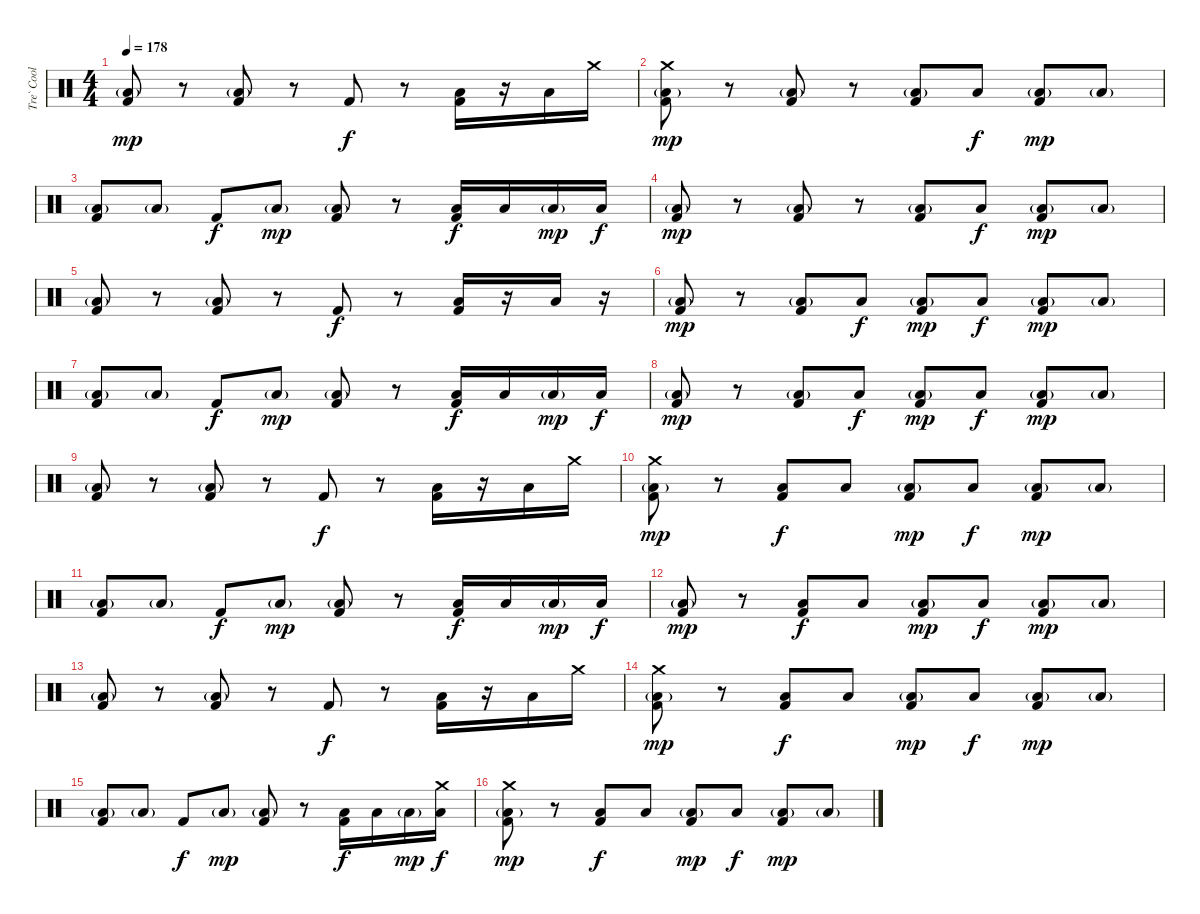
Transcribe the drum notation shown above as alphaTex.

\track ("Tre` Cool (Drums)" "Tre` Cool ") {instrument percussion}
\staff {score}
\articulation defaults
\ts (4 4)
\tempo 178
\clef neutral
\ks c
("Low Tom (hit)"{g} "Kick (hit) 2").8{dy mp} r.8 ("Low Tom (hit)"{g} "Kick (hit) 2").8 r.8 "Kick (hit) 2".8{dy f} r.8 ("Low Floor Tom (hit)" "Kick (hit) 2").16 r.16 "Low Tom (hit)".16 "Crash medium (hit)".16 |
("Crash medium (hit)" "Low Tom (hit)"{g} "Kick (hit) 2").8{dy mp} r.8 ("Low Tom (hit)"{g} "Kick (hit) 2").8 r.8 ("Low Tom (hit)"{g} "Kick (hit) 2").8 "Low Tom (hit)".8{dy f} ("Low Tom (hit)"{g} "Kick (hit) 2").8{dy mp} "Low Tom (hit)"{g}.8 |
("Low Tom (hit)"{g} "Kick (hit) 2").8 "Low Tom (hit)"{g}.8 "Kick (hit) 2".8{dy f} "Low Tom (hit)"{g}.8{dy mp} ("Low Tom (hit)"{g} "Kick (hit) 2").8 r.8 ("Low Floor Tom (hit)" "Kick (hit) 2").16{dy f} "Low Floor Tom (hit)".16 "Low Tom (hit)"{g}.16{dy mp} "Low Floor Tom (hit)".16{dy f} |
("Low Tom (hit)"{g} "Kick (hit) 2").8{dy mp} r.8 ("Low Tom (hit)"{g} "Kick (hit) 2").8 r.8 ("Low Tom (hit)"{g} "Kick (hit) 2").8 "Low Tom (hit)".8{dy f} ("Low Tom (hit)"{g} "Kick (hit) 2").8{dy mp} "Low Tom (hit)"{g}.8 |
("Low Tom (hit)"{g} "Kick (hit) 2").8 r.8 ("Low Tom (hit)"{g} "Kick (hit) 2").8 r.8 "Kick (hit) 2".8{dy f} r.8 ("Low Floor Tom (hit)" "Kick (hit) 2").16 r.16 "Low Tom (hit)".16 r.16 |
("Low Tom (hit)"{g} "Kick (hit) 2").8{dy mp} r.8 ("Low Tom (hit)"{g} "Kick (hit) 2").8 "Low Tom (hit)".8{dy f} ("Low Tom (hit)"{g} "Kick (hit) 2").8{dy mp} "Low Tom (hit)".8{dy f} ("Low Tom (hit)"{g} "Kick (hit) 2").8{dy mp} "Low Tom (hit)"{g}.8 |
("Low Tom (hit)"{g} "Kick (hit) 2").8 "Low Tom (hit)"{g}.8 "Kick (hit) 2".8{dy f} "Low Tom (hit)"{g}.8{dy mp} ("Low Tom (hit)"{g} "Kick (hit) 2").8 r.8 ("Low Floor Tom (hit)" "Kick (hit) 2").16{dy f} "Low Floor Tom (hit)".16 "Low Tom (hit)"{g}.16{dy mp} "Low Floor Tom (hit)".16{dy f} |
("Low Tom (hit)"{g} "Kick (hit) 2").8{dy mp} r.8 ("Low Tom (hit)"{g} "Kick (hit) 2").8 "Low Tom (hit)".8{dy f} ("Low Tom (hit)"{g} "Kick (hit) 2").8{dy mp} "Low Tom (hit)".8{dy f} ("Low Tom (hit)"{g} "Kick (hit) 2").8{dy mp} "Low Tom (hit)"{g}.8 |
("Low Tom (hit)"{g} "Kick (hit) 2").8 r.8 ("Low Tom (hit)"{g} "Kick (hit) 2").8 r.8 "Kick (hit) 2".8{dy f} r.8 ("Low Floor Tom (hit)" "Kick (hit) 2").16 r.16 "Low Tom (hit)".16 "Crash medium (hit)".16 |
("Crash medium (hit)" "Low Tom (hit)"{g} "Kick (hit) 2").8{dy mp} r.8 ("Low Tom (hit)" "Kick (hit) 2").8{dy f} "Low Tom (hit)".8 ("Low Tom (hit)"{g} "Kick (hit) 2").8{dy mp} "Low Tom (hit)".8{dy f} ("Low Tom (hit)"{g} "Kick (hit) 2").8{dy mp} "Low Tom (hit)"{g}.8 |
("Low Tom (hit)"{g} "Kick (hit) 2").8 "Low Tom (hit)"{g}.8 "Kick (hit) 2".8{dy f} "Low Tom (hit)"{g}.8{dy mp} ("Low Tom (hit)"{g} "Kick (hit) 2").8 r.8 ("Low Floor Tom (hit)" "Kick (hit) 2").16{dy f} "Low Floor Tom (hit)".16 "Low Tom (hit)"{g}.16{dy mp} "Low Floor Tom (hit)".16{dy f} |
("Low Tom (hit)"{g} "Kick (hit) 2").8{dy mp} r.8 ("Low Tom (hit)" "Kick (hit) 2").8{dy f} "Low Tom (hit)".8 ("Low Tom (hit)"{g} "Kick (hit) 2").8{dy mp} "Low Tom (hit)".8{dy f} ("Low Tom (hit)"{g} "Kick (hit) 2").8{dy mp} "Low Tom (hit)"{g}.8 |
("Low Tom (hit)"{g} "Kick (hit) 2").8 r.8 ("Low Tom (hit)"{g} "Kick (hit) 2").8 r.8 "Kick (hit) 2".8{dy f} r.8 ("Low Floor Tom (hit)" "Kick (hit) 2").16 r.16 "Low Tom (hit)".16 "Crash medium (hit)".16 |
("Crash medium (hit)" "Low Tom (hit)"{g} "Kick (hit) 2").8{dy mp} r.8 ("Low Tom (hit)" "Kick (hit) 2").8{dy f} "Low Tom (hit)".8 ("Low Tom (hit)"{g} "Kick (hit) 2").8{dy mp} "Low Tom (hit)".8{dy f} ("Low Tom (hit)"{g} "Kick (hit) 2").8{dy mp} "Low Tom (hit)"{g}.8 |
("Low Tom (hit)"{g} "Kick (hit) 2").8 "Low Tom (hit)"{g}.8 "Kick (hit) 2".8{dy f} "Low Tom (hit)"{g}.8{dy mp} ("Low Tom (hit)"{g} "Kick (hit) 2").8 r.8 ("Low Floor Tom (hit)" "Kick (hit) 2").16{dy f} "Low Floor Tom (hit)".16 "Low Tom (hit)"{g}.16{dy mp} ("Crash medium (hit)" "Low Floor Tom (hit)").16{dy f} |
("Crash medium (hit)" "Low Tom (hit)"{g} "Kick (hit) 2").8{dy mp} r.8 ("Low Tom (hit)" "Kick (hit) 2").8{dy f} "Low Tom (hit)".8 ("Low Tom (hit)"{g} "Kick (hit) 2").8{dy mp} "Low Tom (hit)".8{dy f} ("Low Tom (hit)"{g} "Kick (hit) 2").8{dy mp} "Low Tom (hit)"{g}.8
